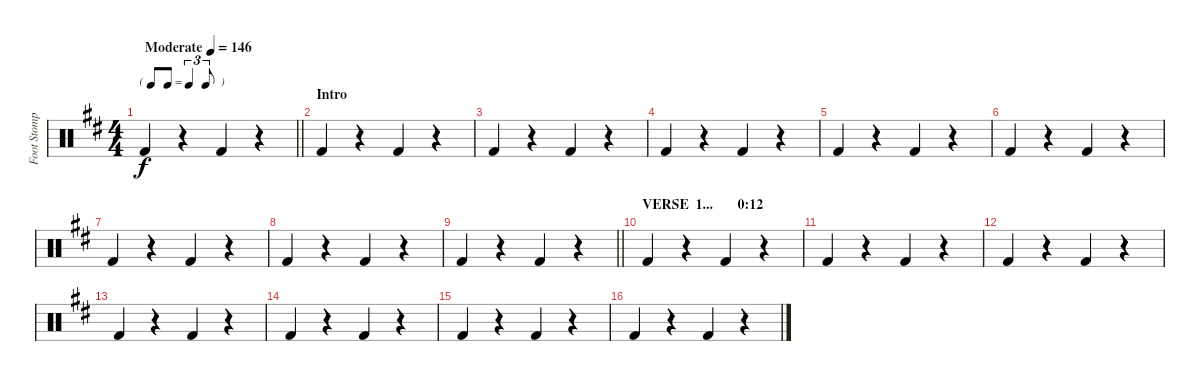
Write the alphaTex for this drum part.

\track ("Foot Stomp" "Foot Stomp") {instrument percussion}
\staff {score}
\articulation defaults
\ts (4 4)
\tf triplet8th
\tempo (146 "Moderate")
\clef neutral
\barLineRight lightlight
\ks d "Kick (hit) 2".4{dy f}
r.4 "Kick (hit) 2".4 r.4 |
\section ("" "Intro")
"Kick (hit) 2".4 r.4 "Kick (hit) 2".4 r.4 |
"Kick (hit) 2".4 r.4 "Kick (hit) 2".4 r.4 |
"Kick (hit) 2".4 r.4 "Kick (hit) 2".4 r.4 |
"Kick (hit) 2".4 r.4 "Kick (hit) 2".4 r.4 |
"Kick (hit) 2".4 r.4 "Kick (hit) 2".4 r.4 |
"Kick (hit) 2".4 r.4 "Kick (hit) 2".4 r.4 |
"Kick (hit) 2".4 r.4 "Kick (hit) 2".4 r.4 |
\barLineRight lightlight "Kick (hit) 2".4
r.4 "Kick (hit) 2".4 r.4 |
\section ("" "VERSE  1...       0:12")
"Kick (hit) 2".4 r.4 "Kick (hit) 2".4 r.4 |
"Kick (hit) 2".4 r.4 "Kick (hit) 2".4 r.4 |
"Kick (hit) 2".4 r.4 "Kick (hit) 2".4 r.4 |
"Kick (hit) 2".4 r.4 "Kick (hit) 2".4 r.4 |
"Kick (hit) 2".4 r.4 "Kick (hit) 2".4 r.4 |
"Kick (hit) 2".4 r.4 "Kick (hit) 2".4 r.4 |
"Kick (hit) 2".4 r.4 "Kick (hit) 2".4 r.4
